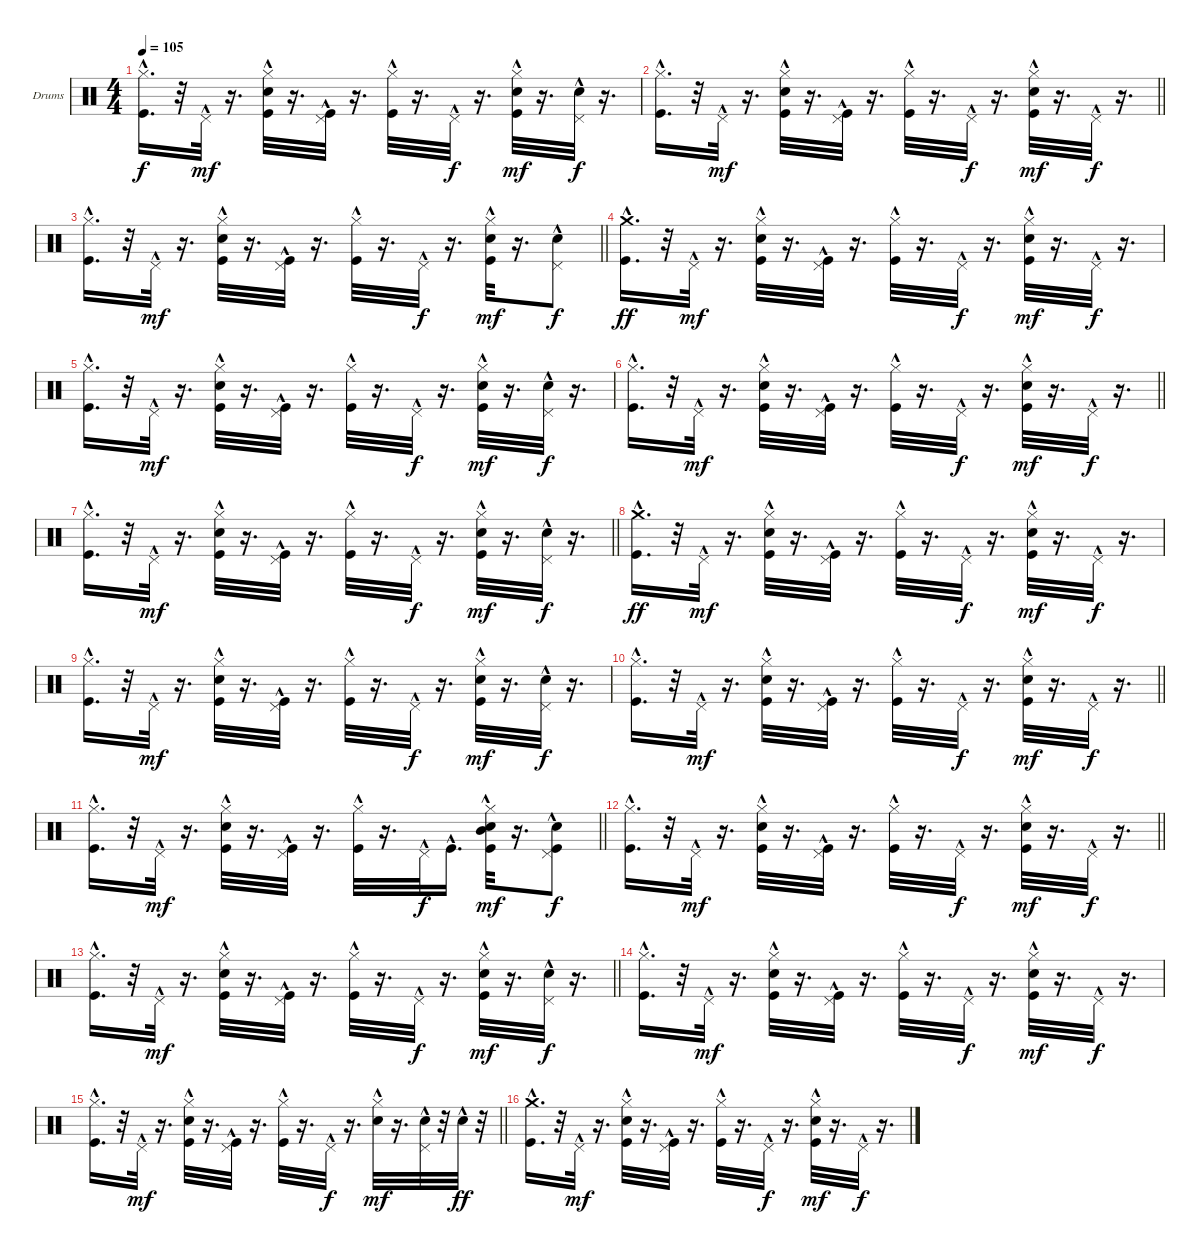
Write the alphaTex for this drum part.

\bracketExtendMode groupsimilarinstruments
\firstSystemTrackNameOrientation horizontal
\otherSystemsTrackNameOrientation horizontal
\track ("Барабаны Г.Гурьянов" "Drums") {instrument percussion}
\staff {score}
\articulation defaults
\ts (4 4)
\tempo 105
\clef neutral
\ks c
("Hi-Hat (closed)"{hac} "Kick (hit)"{hac}).16{d dy f} r.32 "Pedal Hi-Hat (hit)"{hac}.32{dy mf} r.16{d} ("Hi-Hat (closed)"{hac} "Snare (hit) 2"{hac} "Kick (hit)"{hac}).32 r.16{d} ("Pedal Hi-Hat (hit)"{hac} "Kick (hit)"{hac}).32 r.16{d} ("Hi-Hat (closed)"{hac} "Kick (hit)"{hac}).32 r.16{d} "Pedal Hi-Hat (hit)"{hac}.32{dy f} r.16{d} ("Hi-Hat (closed)"{hac} "Snare (hit) 2"{hac} "Kick (hit)"{hac}).32{dy mf} r.16{d} ("Pedal Hi-Hat (hit)"{hac} "Snare (hit) 2"{hac}).32{dy f} r.16{d} |
\barLineRight lightlight
("Hi-Hat (closed)"{hac} "Kick (hit)"{hac}).16{d} r.32 "Pedal Hi-Hat (hit)"{hac}.32{dy mf} r.16{d} ("Hi-Hat (closed)"{hac} "Snare (hit) 2"{hac} "Kick (hit)"{hac}).32 r.16{d} ("Pedal Hi-Hat (hit)"{hac} "Kick (hit)"{hac}).32 r.16{d} ("Hi-Hat (closed)"{hac} "Kick (hit)"{hac}).32 r.16{d} "Pedal Hi-Hat (hit)"{hac}.32{dy f} r.16{d} ("Hi-Hat (closed)"{hac} "Snare (hit) 2"{hac} "Kick (hit)"{hac}).32{dy mf} r.16{d} "Pedal Hi-Hat (hit)"{hac}.32{dy f} r.16{d} |
\barLineRight lightlight
("Hi-Hat (closed)"{hac} "Kick (hit)"{hac}).16{d} r.32 "Pedal Hi-Hat (hit)"{hac}.32{dy mf} r.16{d} ("Hi-Hat (closed)"{hac} "Snare (hit) 2"{hac} "Kick (hit)"{hac}).32 r.16{d} ("Pedal Hi-Hat (hit)"{hac} "Kick (hit)"{hac}).32 r.16{d} ("Hi-Hat (closed)"{hac} "Kick (hit)"{hac}).32 r.16{d} "Pedal Hi-Hat (hit)"{hac}.32{dy f} r.16{d} ("Hi-Hat (closed)"{hac} "Snare (hit) 2"{hac} "Kick (hit)"{hac}).32{dy mf} r.16{d} ("Pedal Hi-Hat (hit)"{hac} "Snare (hit) 2"{hac}).8{dy f} |
("Crash medium (hit)"{hac} "Kick (hit)"{hac}).16{d dy ff} r.32 "Pedal Hi-Hat (hit)"{hac}.32{dy mf} r.16{d} ("Hi-Hat (closed)"{hac} "Snare (hit) 2"{hac} "Kick (hit)"{hac}).32 r.16{d} ("Pedal Hi-Hat (hit)"{hac} "Kick (hit)"{hac}).32 r.16{d} ("Hi-Hat (closed)"{hac} "Kick (hit)"{hac}).32 r.16{d} "Pedal Hi-Hat (hit)"{hac}.32{dy f} r.16{d} ("Hi-Hat (closed)"{hac} "Snare (hit) 2"{hac} "Kick (hit)"{hac}).32{dy mf} r.16{d} "Pedal Hi-Hat (hit)"{hac}.32{dy f} r.16{d} |
("Hi-Hat (closed)"{hac} "Kick (hit)"{hac}).16{d} r.32 "Pedal Hi-Hat (hit)"{hac}.32{dy mf} r.16{d} ("Hi-Hat (closed)"{hac} "Snare (hit) 2"{hac} "Kick (hit)"{hac}).32 r.16{d} ("Pedal Hi-Hat (hit)"{hac} "Kick (hit)"{hac}).32 r.16{d} ("Hi-Hat (closed)"{hac} "Kick (hit)"{hac}).32 r.16{d} "Pedal Hi-Hat (hit)"{hac}.32{dy f} r.16{d} ("Hi-Hat (closed)"{hac} "Snare (hit) 2"{hac} "Kick (hit)"{hac}).32{dy mf} r.16{d} ("Pedal Hi-Hat (hit)"{hac} "Snare (hit) 2"{hac}).32{dy f} r.16{d} |
\barLineRight lightlight
("Hi-Hat (closed)"{hac} "Kick (hit)"{hac}).16{d} r.32 "Pedal Hi-Hat (hit)"{hac}.32{dy mf} r.16{d} ("Hi-Hat (closed)"{hac} "Snare (hit) 2"{hac} "Kick (hit)"{hac}).32 r.16{d} ("Pedal Hi-Hat (hit)"{hac} "Kick (hit)"{hac}).32 r.16{d} ("Hi-Hat (closed)"{hac} "Kick (hit)"{hac}).32 r.16{d} "Pedal Hi-Hat (hit)"{hac}.32{dy f} r.16{d} ("Hi-Hat (closed)"{hac} "Snare (hit) 2"{hac} "Kick (hit)"{hac}).32{dy mf} r.16{d} "Pedal Hi-Hat (hit)"{hac}.32{dy f} r.16{d} |
\barLineRight lightlight
("Hi-Hat (closed)"{hac} "Kick (hit)"{hac}).16{d} r.32 "Pedal Hi-Hat (hit)"{hac}.32{dy mf} r.16{d} ("Hi-Hat (closed)"{hac} "Snare (hit) 2"{hac} "Kick (hit)"{hac}).32 r.16{d} ("Pedal Hi-Hat (hit)"{hac} "Kick (hit)"{hac}).32 r.16{d} ("Hi-Hat (closed)"{hac} "Kick (hit)"{hac}).32 r.16{d} "Pedal Hi-Hat (hit)"{hac}.32{dy f} r.16{d} ("Hi-Hat (closed)"{hac} "Snare (hit) 2"{hac} "Kick (hit)"{hac}).32{dy mf} r.16{d} ("Pedal Hi-Hat (hit)"{hac} "Snare (hit) 2"{hac}).32{dy f} r.16{d} |
("Crash medium (hit)"{hac} "Kick (hit)"{hac}).16{d dy ff} r.32 "Pedal Hi-Hat (hit)"{hac}.32{dy mf} r.16{d} ("Hi-Hat (closed)"{hac} "Snare (hit) 2"{hac} "Kick (hit)"{hac}).32 r.16{d} ("Pedal Hi-Hat (hit)"{hac} "Kick (hit)"{hac}).32 r.16{d} ("Hi-Hat (closed)"{hac} "Kick (hit)"{hac}).32 r.16{d} "Pedal Hi-Hat (hit)"{hac}.32{dy f} r.16{d} ("Hi-Hat (closed)"{hac} "Snare (hit) 2"{hac} "Kick (hit)"{hac}).32{dy mf} r.16{d} "Pedal Hi-Hat (hit)"{hac}.32{dy f} r.16{d} |
("Hi-Hat (closed)"{hac} "Kick (hit)"{hac}).16{d} r.32 "Pedal Hi-Hat (hit)"{hac}.32{dy mf} r.16{d} ("Hi-Hat (closed)"{hac} "Snare (hit) 2"{hac} "Kick (hit)"{hac}).32 r.16{d} ("Pedal Hi-Hat (hit)"{hac} "Kick (hit)"{hac}).32 r.16{d} ("Hi-Hat (closed)"{hac} "Kick (hit)"{hac}).32 r.16{d} "Pedal Hi-Hat (hit)"{hac}.32{dy f} r.16{d} ("Hi-Hat (closed)"{hac} "Snare (hit) 2"{hac} "Kick (hit)"{hac}).32{dy mf} r.16{d} ("Pedal Hi-Hat (hit)"{hac} "Snare (hit) 2"{hac}).32{dy f} r.16{d} |
\barLineRight lightlight
("Hi-Hat (closed)"{hac} "Kick (hit)"{hac}).16{d} r.32 "Pedal Hi-Hat (hit)"{hac}.32{dy mf} r.16{d} ("Hi-Hat (closed)"{hac} "Snare (hit) 2"{hac} "Kick (hit)"{hac}).32 r.16{d} ("Pedal Hi-Hat (hit)"{hac} "Kick (hit)"{hac}).32 r.16{d} ("Hi-Hat (closed)"{hac} "Kick (hit)"{hac}).32 r.16{d} "Pedal Hi-Hat (hit)"{hac}.32{dy f} r.16{d} ("Hi-Hat (closed)"{hac} "Snare (hit) 2"{hac} "Kick (hit)"{hac}).32{dy mf} r.16{d} "Pedal Hi-Hat (hit)"{hac}.32{dy f} r.16{d} |
\barLineRight lightlight
("Hi-Hat (closed)"{hac} "Kick (hit)"{hac}).16{d} r.32 "Pedal Hi-Hat (hit)"{hac}.32{dy mf} r.16{d} ("Hi-Hat (closed)"{hac} "Snare (hit) 2"{hac} "Kick (hit)"{hac}).32 r.16{d} ("Pedal Hi-Hat (hit)"{hac} "Kick (hit)"{hac}).32 r.16{d} ("Hi-Hat (closed)"{hac} "Kick (hit)"{hac}).32 r.16{d} "Pedal Hi-Hat (hit)"{hac}.32{dy f} "Kick (hit)"{hac}.16{d} ("Hi-Hat (closed)"{hac} "Snare (hit) 2"{hac} "Mid Tom (hit)"{hac} "Kick (hit)"{hac}).32{dy mf} r.16{d} ("Pedal Hi-Hat (hit)"{hac} "Snare (hit) 2"{hac} "Kick (hit)"{hac}).8{dy f} |
\barLineRight lightlight
("Hi-Hat (closed)"{hac} "Kick (hit)"{hac}).16{d} r.32 "Pedal Hi-Hat (hit)"{hac}.32{dy mf} r.16{d} ("Hi-Hat (closed)"{hac} "Snare (hit) 2"{hac} "Kick (hit)"{hac}).32 r.16{d} ("Pedal Hi-Hat (hit)"{hac} "Kick (hit)"{hac}).32 r.16{d} ("Hi-Hat (closed)"{hac} "Kick (hit)"{hac}).32 r.16{d} "Pedal Hi-Hat (hit)"{hac}.32{dy f} r.16{d} ("Hi-Hat (closed)"{hac} "Snare (hit) 2"{hac} "Kick (hit)"{hac}).32{dy mf} r.16{d} "Pedal Hi-Hat (hit)"{hac}.32{dy f} r.16{d} |
\barLineRight lightlight
("Hi-Hat (closed)"{hac} "Kick (hit)"{hac}).16{d} r.32 "Pedal Hi-Hat (hit)"{hac}.32{dy mf} r.16{d} ("Hi-Hat (closed)"{hac} "Snare (hit) 2"{hac} "Kick (hit)"{hac}).32 r.16{d} ("Pedal Hi-Hat (hit)"{hac} "Kick (hit)"{hac}).32 r.16{d} ("Hi-Hat (closed)"{hac} "Kick (hit)"{hac}).32 r.16{d} "Pedal Hi-Hat (hit)"{hac}.32{dy f} r.16{d} ("Hi-Hat (closed)"{hac} "Snare (hit) 2"{hac} "Kick (hit)"{hac}).32{dy mf} r.16{d} ("Pedal Hi-Hat (hit)"{hac} "Snare (hit) 2"{hac}).32{dy f} r.16{d} |
("Hi-Hat (closed)"{hac} "Kick (hit)"{hac}).16{d} r.32 "Pedal Hi-Hat (hit)"{hac}.32{dy mf} r.16{d} ("Hi-Hat (closed)"{hac} "Snare (hit) 2"{hac} "Kick (hit)"{hac}).32 r.16{d} ("Pedal Hi-Hat (hit)"{hac} "Kick (hit)"{hac}).32 r.16{d} ("Hi-Hat (closed)"{hac} "Kick (hit)"{hac}).32 r.16{d} "Pedal Hi-Hat (hit)"{hac}.32{dy f} r.16{d} ("Hi-Hat (closed)"{hac} "Snare (hit) 2"{hac} "Kick (hit)"{hac}).32{dy mf} r.16{d} "Pedal Hi-Hat (hit)"{hac}.32{dy f} r.16{d} |
\barLineRight lightlight
("Hi-Hat (closed)"{hac} "Kick (hit)"{hac}).16{d} r.32 "Pedal Hi-Hat (hit)"{hac}.32{dy mf} r.16{d} ("Hi-Hat (closed)"{hac} "Snare (hit) 2"{hac} "Kick (hit)"{hac}).32 r.16{d} ("Pedal Hi-Hat (hit)"{hac} "Kick (hit)"{hac}).32 r.16{d} ("Hi-Hat (closed)"{hac} "Kick (hit)"{hac}).32 r.16{d} "Pedal Hi-Hat (hit)"{hac}.32{dy f} r.16{d} ("Hi-Hat (closed)"{hac} "Snare (hit) 2"{hac}).32{dy mf} r.16{d} ("Pedal Hi-Hat (hit)"{hac} "Snare (hit) 2"{hac}).32 r.32 "Snare (hit) 2"{hac}.32{dy ff} r.32 |
("Crash medium (hit)"{hac} "Kick (hit)"{hac}).16{d} r.32 "Pedal Hi-Hat (hit)"{hac}.32{dy mf} r.16{d} ("Hi-Hat (closed)"{hac} "Snare (hit) 2"{hac} "Kick (hit)"{hac}).32 r.16{d} ("Pedal Hi-Hat (hit)"{hac} "Kick (hit)"{hac}).32 r.16{d} ("Hi-Hat (closed)"{hac} "Kick (hit)"{hac}).32 r.16{d} "Pedal Hi-Hat (hit)"{hac}.32{dy f} r.16{d} ("Hi-Hat (closed)"{hac} "Snare (hit) 2"{hac} "Kick (hit)"{hac}).32{dy mf} r.16{d} "Pedal Hi-Hat (hit)"{hac}.32{dy f} r.16{d}
